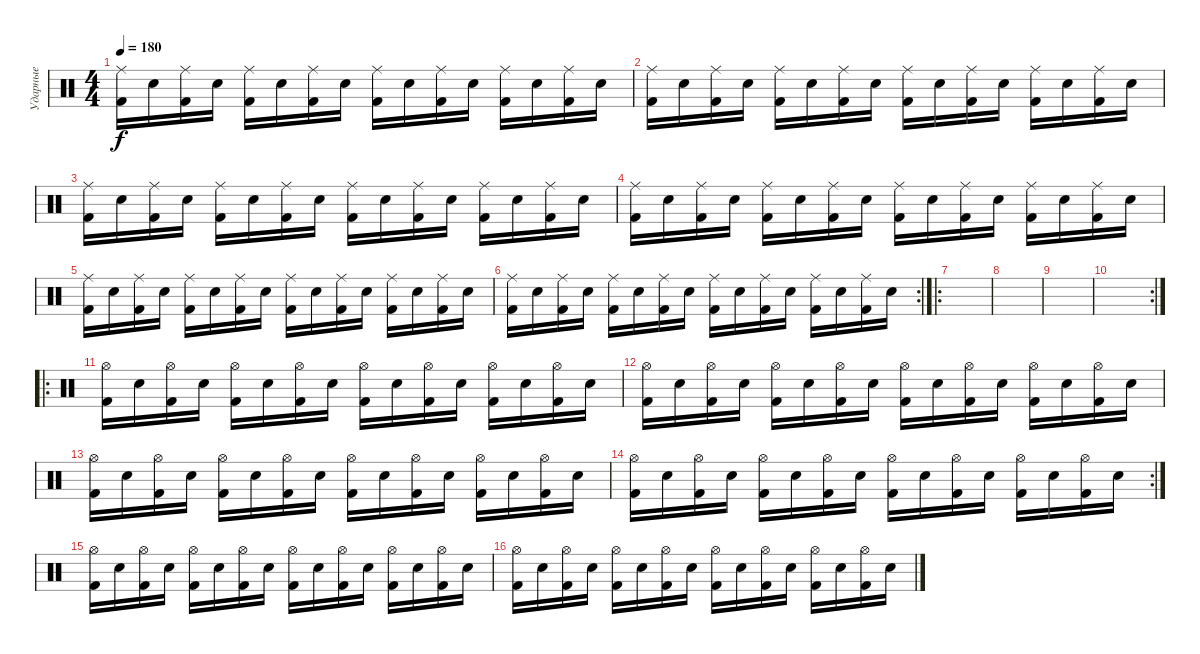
\track ("Ударные" "Ударные") {instrument percussion}
\staff {score}
\articulation defaults
\ts (4 4)
\tempo 180
\clef neutral
\ks c
("Kick (hit) 2" "Ride (middle)").16{dy f} "Electric Snare (hit)".16 ("Kick (hit) 2" "Ride (middle)").16 "Electric Snare (hit)".16 ("Kick (hit) 2" "Ride (middle)").16 "Electric Snare (hit)".16 ("Kick (hit) 2" "Ride (middle)").16 "Electric Snare (hit)".16 ("Kick (hit) 2" "Ride (middle)").16 "Electric Snare (hit)".16 ("Kick (hit) 2" "Ride (middle)").16 "Electric Snare (hit)".16 ("Kick (hit) 2" "Ride (middle)").16 "Electric Snare (hit)".16 ("Kick (hit) 2" "Ride (middle)").16 "Electric Snare (hit)".16 |
("Kick (hit) 2" "Ride (middle)").16 "Electric Snare (hit)".16 ("Kick (hit) 2" "Ride (middle)").16 "Electric Snare (hit)".16 ("Kick (hit) 2" "Ride (middle)").16 "Electric Snare (hit)".16 ("Kick (hit) 2" "Ride (middle)").16 "Electric Snare (hit)".16 ("Kick (hit) 2" "Ride (middle)").16 "Electric Snare (hit)".16 ("Kick (hit) 2" "Ride (middle)").16 "Electric Snare (hit)".16 ("Kick (hit) 2" "Ride (middle)").16 "Electric Snare (hit)".16 ("Kick (hit) 2" "Ride (middle)").16 "Electric Snare (hit)".16 |
("Kick (hit) 2" "Ride (middle)").16 "Electric Snare (hit)".16 ("Kick (hit) 2" "Ride (middle)").16 "Electric Snare (hit)".16 ("Kick (hit) 2" "Ride (middle)").16 "Electric Snare (hit)".16 ("Kick (hit) 2" "Ride (middle)").16 "Electric Snare (hit)".16 ("Kick (hit) 2" "Ride (middle)").16 "Electric Snare (hit)".16 ("Kick (hit) 2" "Ride (middle)").16 "Electric Snare (hit)".16 ("Kick (hit) 2" "Ride (middle)").16 "Electric Snare (hit)".16 ("Kick (hit) 2" "Ride (middle)").16 "Electric Snare (hit)".16 |
("Kick (hit) 2" "Ride (middle)").16 "Electric Snare (hit)".16 ("Kick (hit) 2" "Ride (middle)").16 "Electric Snare (hit)".16 ("Kick (hit) 2" "Ride (middle)").16 "Electric Snare (hit)".16 ("Kick (hit) 2" "Ride (middle)").16 "Electric Snare (hit)".16 ("Kick (hit) 2" "Ride (middle)").16 "Electric Snare (hit)".16 ("Kick (hit) 2" "Ride (middle)").16 "Electric Snare (hit)".16 ("Kick (hit) 2" "Ride (middle)").16 "Electric Snare (hit)".16 ("Kick (hit) 2" "Ride (middle)").16 "Electric Snare (hit)".16 |
("Kick (hit) 2" "Ride (middle)").16 "Electric Snare (hit)".16 ("Kick (hit) 2" "Ride (middle)").16 "Electric Snare (hit)".16 ("Kick (hit) 2" "Ride (middle)").16 "Electric Snare (hit)".16 ("Kick (hit) 2" "Ride (middle)").16 "Electric Snare (hit)".16 ("Kick (hit) 2" "Ride (middle)").16 "Electric Snare (hit)".16 ("Kick (hit) 2" "Ride (middle)").16 "Electric Snare (hit)".16 ("Kick (hit) 2" "Ride (middle)").16 "Electric Snare (hit)".16 ("Kick (hit) 2" "Ride (middle)").16 "Electric Snare (hit)".16 |
\rc 2
("Kick (hit) 2" "Ride (middle)").16 "Electric Snare (hit)".16 ("Kick (hit) 2" "Ride (middle)").16 "Electric Snare (hit)".16 ("Kick (hit) 2" "Ride (middle)").16 "Electric Snare (hit)".16 ("Kick (hit) 2" "Ride (middle)").16 "Electric Snare (hit)".16 ("Kick (hit) 2" "Ride (middle)").16 "Electric Snare (hit)".16 ("Kick (hit) 2" "Ride (middle)").16 "Electric Snare (hit)".16 ("Kick (hit) 2" "Ride (middle)").16 "Electric Snare (hit)".16 ("Kick (hit) 2" "Ride (middle)").16 "Electric Snare (hit)".16 |
\ro
|
|
|
\rc 2
|
\ro
("Kick (hit) 2" "Hi-Hat (open)").16 "Electric Snare (hit)".16 ("Kick (hit) 2" "Hi-Hat (open)").16 "Electric Snare (hit)".16 ("Kick (hit) 2" "Hi-Hat (open)").16 "Electric Snare (hit)".16 ("Kick (hit) 2" "Hi-Hat (open)").16 "Electric Snare (hit)".16 ("Kick (hit) 2" "Hi-Hat (open)").16 "Electric Snare (hit)".16 ("Kick (hit) 2" "Hi-Hat (open)").16 "Electric Snare (hit)".16 ("Kick (hit) 2" "Hi-Hat (open)").16 "Electric Snare (hit)".16 ("Kick (hit) 2" "Hi-Hat (open)").16 "Electric Snare (hit)".16 |
("Kick (hit) 2" "Hi-Hat (open)").16 "Electric Snare (hit)".16 ("Kick (hit) 2" "Hi-Hat (open)").16 "Electric Snare (hit)".16 ("Kick (hit) 2" "Hi-Hat (open)").16 "Electric Snare (hit)".16 ("Kick (hit) 2" "Hi-Hat (open)").16 "Electric Snare (hit)".16 ("Kick (hit) 2" "Hi-Hat (open)").16 "Electric Snare (hit)".16 ("Kick (hit) 2" "Hi-Hat (open)").16 "Electric Snare (hit)".16 ("Kick (hit) 2" "Hi-Hat (open)").16 "Electric Snare (hit)".16 ("Kick (hit) 2" "Hi-Hat (open)").16 "Electric Snare (hit)".16 |
("Kick (hit) 2" "Hi-Hat (open)").16 "Electric Snare (hit)".16 ("Kick (hit) 2" "Hi-Hat (open)").16 "Electric Snare (hit)".16 ("Kick (hit) 2" "Hi-Hat (open)").16 "Electric Snare (hit)".16 ("Kick (hit) 2" "Hi-Hat (open)").16 "Electric Snare (hit)".16 ("Kick (hit) 2" "Hi-Hat (open)").16 "Electric Snare (hit)".16 ("Kick (hit) 2" "Hi-Hat (open)").16 "Electric Snare (hit)".16 ("Kick (hit) 2" "Hi-Hat (open)").16 "Electric Snare (hit)".16 ("Kick (hit) 2" "Hi-Hat (open)").16 "Electric Snare (hit)".16 |
\rc 2
("Kick (hit) 2" "Hi-Hat (open)").16 "Electric Snare (hit)".16 ("Kick (hit) 2" "Hi-Hat (open)").16 "Electric Snare (hit)".16 ("Kick (hit) 2" "Hi-Hat (open)").16 "Electric Snare (hit)".16 ("Kick (hit) 2" "Hi-Hat (open)").16 "Electric Snare (hit)".16 ("Kick (hit) 2" "Hi-Hat (open)").16 "Electric Snare (hit)".16 ("Kick (hit) 2" "Hi-Hat (open)").16 "Electric Snare (hit)".16 ("Kick (hit) 2" "Hi-Hat (open)").16 "Electric Snare (hit)".16 ("Kick (hit) 2" "Hi-Hat (open)").16 "Electric Snare (hit)".16 |
("Kick (hit) 2" "Hi-Hat (open)").16 "Electric Snare (hit)".16 ("Kick (hit) 2" "Hi-Hat (open)").16 "Electric Snare (hit)".16 ("Kick (hit) 2" "Hi-Hat (open)").16 "Electric Snare (hit)".16 ("Kick (hit) 2" "Hi-Hat (open)").16 "Electric Snare (hit)".16 ("Kick (hit) 2" "Hi-Hat (open)").16 "Electric Snare (hit)".16 ("Kick (hit) 2" "Hi-Hat (open)").16 "Electric Snare (hit)".16 ("Kick (hit) 2" "Hi-Hat (open)").16 "Electric Snare (hit)".16 ("Kick (hit) 2" "Hi-Hat (open)").16 "Electric Snare (hit)".16 |
("Kick (hit) 2" "Hi-Hat (open)").16 "Electric Snare (hit)".16 ("Kick (hit) 2" "Hi-Hat (open)").16 "Electric Snare (hit)".16 ("Kick (hit) 2" "Hi-Hat (open)").16 "Electric Snare (hit)".16 ("Kick (hit) 2" "Hi-Hat (open)").16 "Electric Snare (hit)".16 ("Kick (hit) 2" "Hi-Hat (open)").16 "Electric Snare (hit)".16 ("Kick (hit) 2" "Hi-Hat (open)").16 "Electric Snare (hit)".16 ("Kick (hit) 2" "Hi-Hat (open)").16 "Electric Snare (hit)".16 ("Kick (hit) 2" "Hi-Hat (open)").16 "Electric Snare (hit)".16
